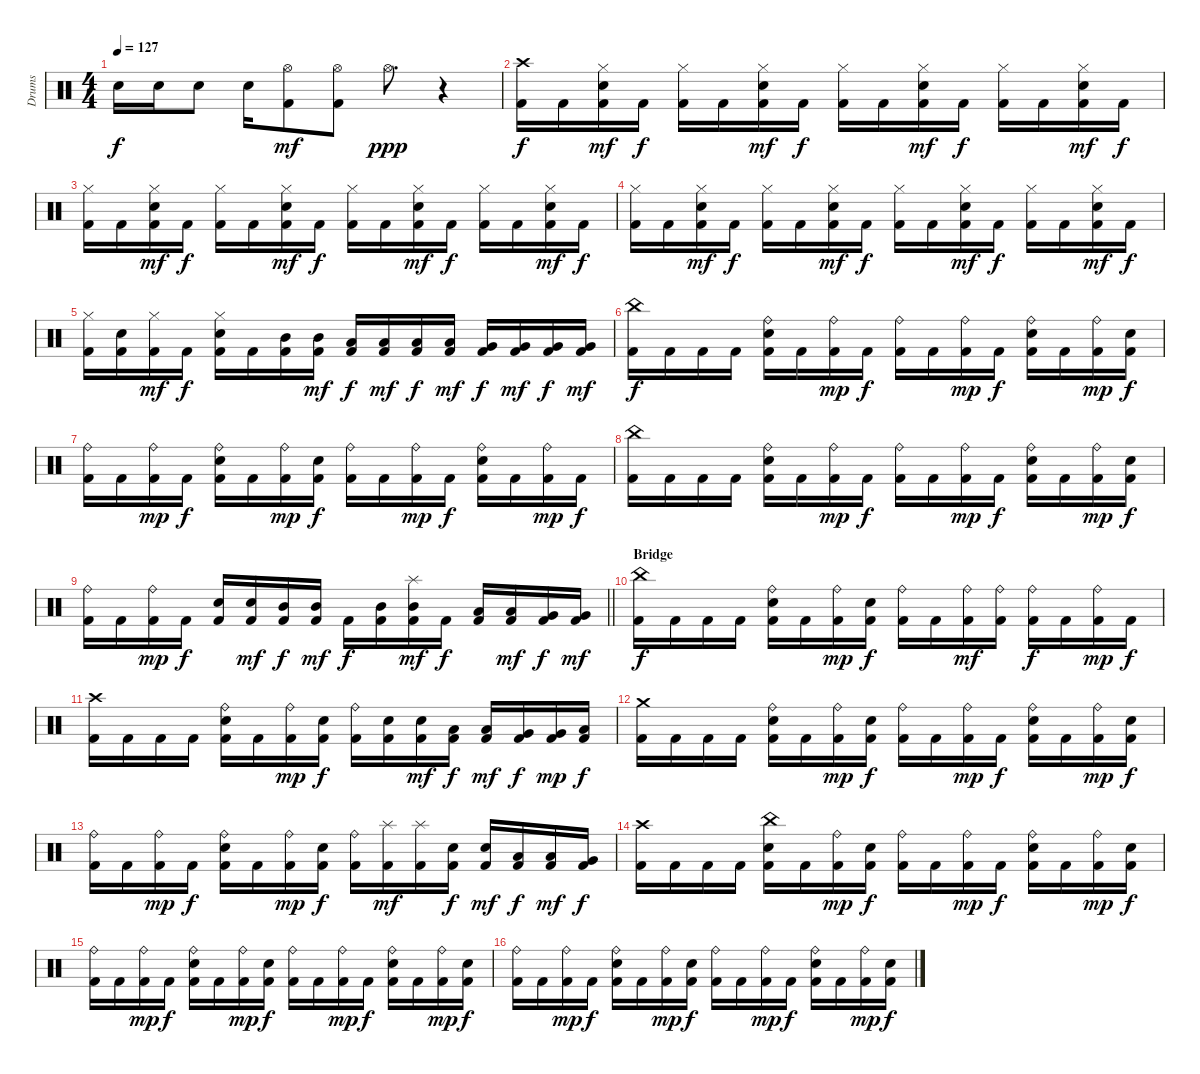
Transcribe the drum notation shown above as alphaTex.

\track ("Drums" "Drums") {instrument percussion}
\staff {score}
\articulation defaults
\ts (4 4)
\tempo 127
\clef neutral
\ks c "Electric Snare (hit)".16{dy f} "Electric Snare (hit)".16 "Electric Snare (hit)".8 "Electric Snare (hit)".16
("Kick (hit) 2" "Hi-Hat (open)").8{dy mf} ("Kick (hit) 2" "Hi-Hat (open)").8 "Hi-Hat (open)".8{d dy ppp} r.4 |
("Kick (hit) 2" "Crash high (hit)").16{dy f} "Kick (hit) 2".16 ("Kick (hit) 2" "Hi-Hat (closed)" "Electric Snare (hit)").16{dy mf} "Kick (hit) 2".16{dy f} ("Kick (hit) 2" "Hi-Hat (closed)").16 "Kick (hit) 2".16 ("Kick (hit) 2" "Hi-Hat (closed)" "Electric Snare (hit)").16{dy mf} "Kick (hit) 2".16{dy f} ("Kick (hit) 2" "Hi-Hat (closed)").16 "Kick (hit) 2".16 ("Kick (hit) 2" "Hi-Hat (closed)" "Electric Snare (hit)").16{dy mf} "Kick (hit) 2".16{dy f} ("Kick (hit) 2" "Hi-Hat (closed)").16 "Kick (hit) 2".16 ("Kick (hit) 2" "Hi-Hat (closed)" "Electric Snare (hit)").16{dy mf} "Kick (hit) 2".16{dy f} |
("Kick (hit) 2" "Hi-Hat (closed)").16 "Kick (hit) 2".16 ("Kick (hit) 2" "Hi-Hat (closed)" "Electric Snare (hit)").16{dy mf} "Kick (hit) 2".16{dy f} ("Kick (hit) 2" "Hi-Hat (closed)").16 "Kick (hit) 2".16 ("Kick (hit) 2" "Hi-Hat (closed)" "Electric Snare (hit)").16{dy mf} "Kick (hit) 2".16{dy f} ("Kick (hit) 2" "Hi-Hat (closed)").16 "Kick (hit) 2".16 ("Kick (hit) 2" "Hi-Hat (closed)" "Electric Snare (hit)").16{dy mf} "Kick (hit) 2".16{dy f} ("Kick (hit) 2" "Hi-Hat (closed)").16 "Kick (hit) 2".16 ("Kick (hit) 2" "Hi-Hat (closed)" "Electric Snare (hit)").16{dy mf} "Kick (hit) 2".16{dy f} |
("Kick (hit) 2" "Hi-Hat (closed)").16 "Kick (hit) 2".16 ("Kick (hit) 2" "Hi-Hat (closed)" "Electric Snare (hit)").16{dy mf} "Kick (hit) 2".16{dy f} ("Kick (hit) 2" "Hi-Hat (closed)").16 "Kick (hit) 2".16 ("Kick (hit) 2" "Hi-Hat (closed)" "Electric Snare (hit)").16{dy mf} "Kick (hit) 2".16{dy f} ("Kick (hit) 2" "Hi-Hat (closed)").16 "Kick (hit) 2".16 ("Kick (hit) 2" "Hi-Hat (closed)" "Electric Snare (hit)").16{dy mf} "Kick (hit) 2".16{dy f} ("Kick (hit) 2" "Hi-Hat (closed)").16 "Kick (hit) 2".16 ("Kick (hit) 2" "Hi-Hat (closed)" "Electric Snare (hit)").16{dy mf} "Kick (hit) 2".16{dy f} |
("Kick (hit) 2" "Hi-Hat (closed)").16 ("Kick (hit) 2" "Electric Snare (hit)").16 ("Kick (hit) 2" "Hi-Hat (closed)").16{dy mf} "Kick (hit) 2".16{dy f} ("Kick (hit) 2" "Hi-Hat (closed)" "Electric Snare (hit)").16 "Kick (hit) 2".16 ("Kick (hit) 2" "Mid Tom (hit)").16 ("Kick (hit) 2" "Mid Tom (hit)").16{dy mf} ("Kick (hit) 2" "Low Tom (hit)").16{dy f} ("Kick (hit) 2" "Low Tom (hit)").16{dy mf} ("Kick (hit) 2" "Low Tom (hit)").16{dy f} ("Kick (hit) 2" "Low Tom (hit)").16{dy mf} ("Kick (hit) 2" "Very Low Tom (hit)").16{dy f} ("Kick (hit) 2" "Very Low Tom (hit)").16{dy mf} ("Kick (hit) 2" "Very Low Tom (hit)").16{dy f} ("Kick (hit) 2" "Very Low Tom (hit)").16{dy mf} |
("Kick (hit) 2" "China (hit)").16{dy f} "Kick (hit) 2".16 "Kick (hit) 2".16 "Kick (hit) 2".16 ("Kick (hit) 2" "Ride (bell)" "Electric Snare (hit)").16 "Kick (hit) 2".16 ("Kick (hit) 2" "Ride (bell)").16{dy mp} "Kick (hit) 2".16{dy f} ("Kick (hit) 2" "Ride (bell)").16 "Kick (hit) 2".16 ("Kick (hit) 2" "Ride (bell)").16{dy mp} "Kick (hit) 2".16{dy f} ("Kick (hit) 2" "Ride (bell)" "Electric Snare (hit)").16 "Kick (hit) 2".16 ("Kick (hit) 2" "Ride (bell)").16{dy mp} ("Kick (hit) 2" "Electric Snare (hit)").16{dy f} |
("Kick (hit) 2" "Ride (bell)").16 "Kick (hit) 2".16 ("Kick (hit) 2" "Ride (bell)").16{dy mp} "Kick (hit) 2".16{dy f} ("Kick (hit) 2" "Ride (bell)" "Electric Snare (hit)").16 "Kick (hit) 2".16 ("Kick (hit) 2" "Ride (bell)").16{dy mp} ("Kick (hit) 2" "Electric Snare (hit)").16{dy f} ("Kick (hit) 2" "Ride (bell)").16 "Kick (hit) 2".16 ("Kick (hit) 2" "Ride (bell)").16{dy mp} "Kick (hit) 2".16{dy f} ("Kick (hit) 2" "Ride (bell)" "Electric Snare (hit)").16 "Kick (hit) 2".16 ("Kick (hit) 2" "Ride (bell)").16{dy mp} "Kick (hit) 2".16{dy f} |
("Kick (hit) 2" "China (hit)").16 "Kick (hit) 2".16 "Kick (hit) 2".16 "Kick (hit) 2".16 ("Kick (hit) 2" "Ride (bell)" "Electric Snare (hit)").16 "Kick (hit) 2".16 ("Kick (hit) 2" "Ride (bell)").16{dy mp} "Kick (hit) 2".16{dy f} ("Kick (hit) 2" "Ride (bell)").16 "Kick (hit) 2".16 ("Kick (hit) 2" "Ride (bell)").16{dy mp} "Kick (hit) 2".16{dy f} ("Kick (hit) 2" "Ride (bell)" "Electric Snare (hit)").16 "Kick (hit) 2".16 ("Kick (hit) 2" "Ride (bell)").16{dy mp} ("Kick (hit) 2" "Electric Snare (hit)").16{dy f} |
\barLineRight lightlight
("Kick (hit) 2" "Ride (bell)").16 "Kick (hit) 2".16 ("Kick (hit) 2" "Ride (bell)").16{dy mp} "Kick (hit) 2".16{dy f} ("Kick (hit) 2" "Electric Snare (hit)").16 ("Kick (hit) 2" "Electric Snare (hit)").16{dy mf} ("Kick (hit) 2" "Mid Tom (hit)").16{dy f} ("Kick (hit) 2" "Mid Tom (hit)").16{dy mf} "Kick (hit) 2".16{dy f} ("Kick (hit) 2" "Mid Tom (hit)").16 ("Kick (hit) 2" "Splash (hit)" "Mid Tom (hit)").16{dy mf} "Kick (hit) 2".16{dy f} ("Kick (hit) 2" "Low Tom (hit)").16 ("Kick (hit) 2" "Low Tom (hit)").16{dy mf} ("Kick (hit) 2" "Very Low Tom (hit)").16{dy f} ("Kick (hit) 2" "Very Low Tom (hit)").16{dy mf} |
\section ("" "Bridge")
("Kick (hit) 2" "China (hit)").16{dy f} "Kick (hit) 2".16 "Kick (hit) 2".16 "Kick (hit) 2".16 ("Kick (hit) 2" "Ride (bell)" "Electric Snare (hit)").16 "Kick (hit) 2".16 ("Kick (hit) 2" "Ride (bell)").16{dy mp} ("Kick (hit) 2" "Electric Snare (hit)").16{dy f} ("Kick (hit) 2" "Ride (bell)").16 "Kick (hit) 2".16 ("Kick (hit) 2" "Ride (bell)").16{dy mf} ("Kick (hit) 2" "Ride (bell)").16 ("Kick (hit) 2" "Ride (bell)").16{dy f} "Kick (hit) 2".16 ("Kick (hit) 2" "Ride (bell)").16{dy mp} "Kick (hit) 2".16{dy f} |
("Kick (hit) 2" "Crash high (hit)").16 "Kick (hit) 2".16 "Kick (hit) 2".16 "Kick (hit) 2".16 ("Kick (hit) 2" "Ride (bell)" "Electric Snare (hit)").16 "Kick (hit) 2".16 ("Kick (hit) 2" "Ride (bell)").16{dy mp} ("Kick (hit) 2" "Electric Snare (hit)").16{dy f} ("Kick (hit) 2" "Ride (bell)").16 ("Kick (hit) 2" "Electric Snare (hit)").16 ("Kick (hit) 2" "Electric Snare (hit)").16{dy mf} ("Kick (hit) 2" "Low Tom (hit)").16{dy f} ("Kick (hit) 2" "Low Tom (hit)").16{dy mf} ("Kick (hit) 2" "Very Low Tom (hit)").16{dy f} ("Kick (hit) 2" "Very Low Tom (hit)").16{dy mp} ("Kick (hit) 2" "Low Floor Tom (hit)").16{dy f} |
("Kick (hit) 2" "Crash medium (hit)").16 "Kick (hit) 2".16 "Kick (hit) 2".16 "Kick (hit) 2".16 ("Kick (hit) 2" "Ride (bell)" "Electric Snare (hit)").16 "Kick (hit) 2".16 ("Kick (hit) 2" "Ride (bell)").16{dy mp} ("Kick (hit) 2" "Electric Snare (hit)").16{dy f} ("Kick (hit) 2" "Ride (bell)").16 "Kick (hit) 2".16 ("Kick (hit) 2" "Ride (bell)").16{dy mp} "Kick (hit) 2".16{dy f} ("Kick (hit) 2" "Ride (bell)" "Electric Snare (hit)").16 "Kick (hit) 2".16 ("Kick (hit) 2" "Ride (bell)").16{dy mp} ("Kick (hit) 2" "Electric Snare (hit)").16{dy f} |
("Kick (hit) 2" "Ride (bell)").16 "Kick (hit) 2".16 ("Kick (hit) 2" "Ride (bell)").16{dy mp} "Kick (hit) 2".16{dy f} ("Kick (hit) 2" "Ride (bell)" "Electric Snare (hit)").16 "Kick (hit) 2".16 ("Kick (hit) 2" "Ride (bell)").16{dy mp} ("Kick (hit) 2" "Electric Snare (hit)").16{dy f} ("Kick (hit) 2" "Ride (bell)").16 ("Kick (hit) 2" "Splash (hit)").16{dy mf} ("Kick (hit) 2" "Splash (hit)").16 ("Kick (hit) 2" "Electric Snare (hit)").16{dy f} ("Kick (hit) 2" "Electric Snare (hit)").16{dy mf} ("Kick (hit) 2" "Low Tom (hit)").16{dy f} ("Kick (hit) 2" "Low Tom (hit)").16{dy mf} ("Kick (hit) 2" "Very Low Tom (hit)").16{dy f} |
("Kick (hit) 2" "Crash high (hit)").16 "Kick (hit) 2".16 "Kick (hit) 2".16 "Kick (hit) 2".16 ("Kick (hit) 2" "China (hit)" "Electric Snare (hit)").16 "Kick (hit) 2".16 ("Kick (hit) 2" "Ride (bell)").16{dy mp} ("Kick (hit) 2" "Electric Snare (hit)").16{dy f} ("Kick (hit) 2" "Ride (bell)").16 "Kick (hit) 2".16 ("Kick (hit) 2" "Ride (bell)").16{dy mp} "Kick (hit) 2".16{dy f} ("Kick (hit) 2" "Ride (bell)" "Electric Snare (hit)").16 "Kick (hit) 2".16 ("Kick (hit) 2" "Ride (bell)").16{dy mp} ("Kick (hit) 2" "Electric Snare (hit)").16{dy f} |
("Kick (hit) 2" "Ride (bell)").16 "Kick (hit) 2".16 ("Kick (hit) 2" "Ride (bell)").16{dy mp} "Kick (hit) 2".16{dy f} ("Kick (hit) 2" "Ride (bell)" "Electric Snare (hit)").16 "Kick (hit) 2".16 ("Kick (hit) 2" "Ride (bell)").16{dy mp} ("Kick (hit) 2" "Electric Snare (hit)").16{dy f} ("Kick (hit) 2" "Ride (bell)").16 "Kick (hit) 2".16 ("Kick (hit) 2" "Ride (bell)").16{dy mp} "Kick (hit) 2".16{dy f} ("Kick (hit) 2" "Ride (bell)" "Electric Snare (hit)").16 "Kick (hit) 2".16 ("Kick (hit) 2" "Ride (bell)").16{dy mp} ("Kick (hit) 2" "Electric Snare (hit)").16{dy f} |
("Kick (hit) 2" "Ride (bell)").16 "Kick (hit) 2".16 ("Kick (hit) 2" "Ride (bell)").16{dy mp} "Kick (hit) 2".16{dy f} ("Kick (hit) 2" "Ride (bell)" "Electric Snare (hit)").16 "Kick (hit) 2".16 ("Kick (hit) 2" "Ride (bell)").16{dy mp} ("Kick (hit) 2" "Electric Snare (hit)").16{dy f} ("Kick (hit) 2" "Ride (bell)").16 "Kick (hit) 2".16 ("Kick (hit) 2" "Ride (bell)").16{dy mp} "Kick (hit) 2".16{dy f} ("Kick (hit) 2" "Ride (bell)" "Electric Snare (hit)").16 "Kick (hit) 2".16 ("Kick (hit) 2" "Ride (bell)").16{dy mp} ("Kick (hit) 2" "Electric Snare (hit)").16{dy f}
